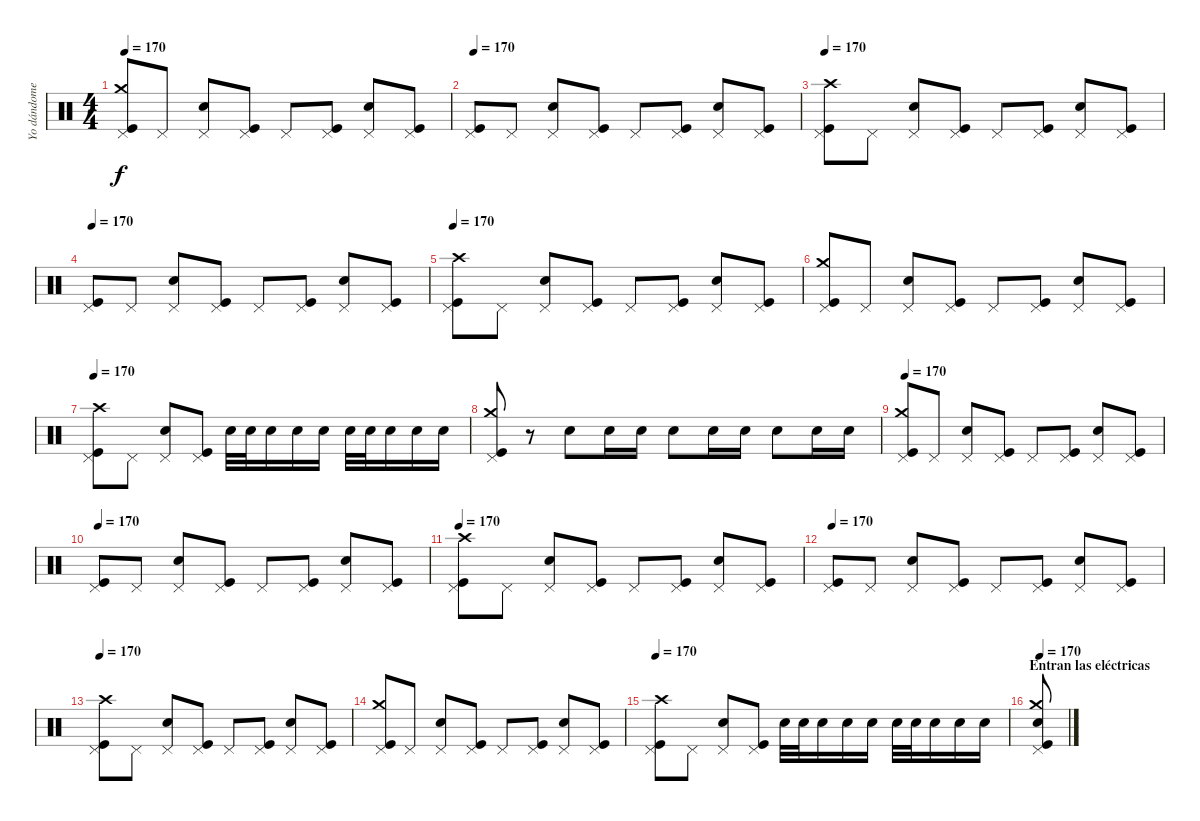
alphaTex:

\track ("Yo dándomelas de batero." "Yo dándome") {instrument percussion}
\staff {score}
\articulation defaults
\ts (4 4)
\tempo 170
\clef neutral
\ks c
("Pedal Hi-Hat (hit)" "Crash medium (hit)" "Kick (hit)").8{dy f} "Pedal Hi-Hat (hit)".8 ("Pedal Hi-Hat (hit)" "Electric Snare (hit)").8 ("Pedal Hi-Hat (hit)" "Kick (hit)").8 "Pedal Hi-Hat (hit)".8 ("Pedal Hi-Hat (hit)" "Kick (hit)").8 ("Pedal Hi-Hat (hit)" "Electric Snare (hit)").8 ("Pedal Hi-Hat (hit)" "Kick (hit)").8 |
\tempo 170
("Pedal Hi-Hat (hit)" "Kick (hit)").8 "Pedal Hi-Hat (hit)".8 ("Pedal Hi-Hat (hit)" "Electric Snare (hit)").8 ("Pedal Hi-Hat (hit)" "Kick (hit)").8 "Pedal Hi-Hat (hit)".8 ("Pedal Hi-Hat (hit)" "Kick (hit)").8 ("Pedal Hi-Hat (hit)" "Electric Snare (hit)").8 ("Pedal Hi-Hat (hit)" "Kick (hit)").8 |
\tempo 170
("Pedal Hi-Hat (hit)" "Crash high (hit)" "Kick (hit)").8 "Pedal Hi-Hat (hit)".8 ("Pedal Hi-Hat (hit)" "Electric Snare (hit)").8 ("Pedal Hi-Hat (hit)" "Kick (hit)").8 "Pedal Hi-Hat (hit)".8 ("Pedal Hi-Hat (hit)" "Kick (hit)").8 ("Pedal Hi-Hat (hit)" "Electric Snare (hit)").8 ("Pedal Hi-Hat (hit)" "Kick (hit)").8 |
\tempo 170
("Pedal Hi-Hat (hit)" "Kick (hit)").8 "Pedal Hi-Hat (hit)".8 ("Pedal Hi-Hat (hit)" "Electric Snare (hit)").8 ("Pedal Hi-Hat (hit)" "Kick (hit)").8 "Pedal Hi-Hat (hit)".8 ("Pedal Hi-Hat (hit)" "Kick (hit)").8 ("Pedal Hi-Hat (hit)" "Electric Snare (hit)").8 ("Pedal Hi-Hat (hit)" "Kick (hit)").8 |
\tempo 170
("Pedal Hi-Hat (hit)" "Crash high (hit)" "Kick (hit)").8 "Pedal Hi-Hat (hit)".8 ("Pedal Hi-Hat (hit)" "Electric Snare (hit)").8 ("Pedal Hi-Hat (hit)" "Kick (hit)").8 "Pedal Hi-Hat (hit)".8 ("Pedal Hi-Hat (hit)" "Kick (hit)").8 ("Pedal Hi-Hat (hit)" "Electric Snare (hit)").8 ("Pedal Hi-Hat (hit)" "Kick (hit)").8 |
("Pedal Hi-Hat (hit)" "Crash medium (hit)" "Kick (hit)").8 "Pedal Hi-Hat (hit)".8 ("Pedal Hi-Hat (hit)" "Electric Snare (hit)").8 ("Pedal Hi-Hat (hit)" "Kick (hit)").8 "Pedal Hi-Hat (hit)".8 ("Pedal Hi-Hat (hit)" "Kick (hit)").8 ("Pedal Hi-Hat (hit)" "Electric Snare (hit)").8 ("Pedal Hi-Hat (hit)" "Kick (hit)").8 |
\tempo 170
("Pedal Hi-Hat (hit)" "Crash high (hit)" "Kick (hit)").8 "Pedal Hi-Hat (hit)".8 ("Pedal Hi-Hat (hit)" "Electric Snare (hit)").8 ("Pedal Hi-Hat (hit)" "Kick (hit)").8 "Electric Snare (hit)".32 "Electric Snare (hit)".32 "Electric Snare (hit)".16 "Electric Snare (hit)".16 "Electric Snare (hit)".16 "Electric Snare (hit)".32 "Electric Snare (hit)".32 "Electric Snare (hit)".16 "Electric Snare (hit)".16 "Electric Snare (hit)".16 |
("Pedal Hi-Hat (hit)" "Crash medium (hit)" "Kick (hit)").8 r.8 "Electric Snare (hit)".8 "Electric Snare (hit)".16 "Electric Snare (hit)".16 "Electric Snare (hit)".8 "Electric Snare (hit)".16 "Electric Snare (hit)".16 "Electric Snare (hit)".8 "Electric Snare (hit)".16 "Electric Snare (hit)".16 |
\tempo 170
("Pedal Hi-Hat (hit)" "Crash medium (hit)" "Kick (hit)").8 "Pedal Hi-Hat (hit)".8 ("Pedal Hi-Hat (hit)" "Electric Snare (hit)").8 ("Pedal Hi-Hat (hit)" "Kick (hit)").8 "Pedal Hi-Hat (hit)".8 ("Pedal Hi-Hat (hit)" "Kick (hit)").8 ("Pedal Hi-Hat (hit)" "Electric Snare (hit)").8 ("Pedal Hi-Hat (hit)" "Kick (hit)").8 |
\tempo 170
("Pedal Hi-Hat (hit)" "Kick (hit)").8 "Pedal Hi-Hat (hit)".8 ("Pedal Hi-Hat (hit)" "Electric Snare (hit)").8 ("Pedal Hi-Hat (hit)" "Kick (hit)").8 "Pedal Hi-Hat (hit)".8 ("Pedal Hi-Hat (hit)" "Kick (hit)").8 ("Pedal Hi-Hat (hit)" "Electric Snare (hit)").8 ("Pedal Hi-Hat (hit)" "Kick (hit)").8 |
\tempo 170
("Pedal Hi-Hat (hit)" "Crash high (hit)" "Kick (hit)").8 "Pedal Hi-Hat (hit)".8 ("Pedal Hi-Hat (hit)" "Electric Snare (hit)").8 ("Pedal Hi-Hat (hit)" "Kick (hit)").8 "Pedal Hi-Hat (hit)".8 ("Pedal Hi-Hat (hit)" "Kick (hit)").8 ("Pedal Hi-Hat (hit)" "Electric Snare (hit)").8 ("Pedal Hi-Hat (hit)" "Kick (hit)").8 |
\tempo 170
("Pedal Hi-Hat (hit)" "Kick (hit)").8 "Pedal Hi-Hat (hit)".8 ("Pedal Hi-Hat (hit)" "Electric Snare (hit)").8 ("Pedal Hi-Hat (hit)" "Kick (hit)").8 "Pedal Hi-Hat (hit)".8 ("Pedal Hi-Hat (hit)" "Kick (hit)").8 ("Pedal Hi-Hat (hit)" "Electric Snare (hit)").8 ("Pedal Hi-Hat (hit)" "Kick (hit)").8 |
\tempo 170
("Pedal Hi-Hat (hit)" "Crash high (hit)" "Kick (hit)").8 "Pedal Hi-Hat (hit)".8 ("Pedal Hi-Hat (hit)" "Electric Snare (hit)").8 ("Pedal Hi-Hat (hit)" "Kick (hit)").8 "Pedal Hi-Hat (hit)".8 ("Pedal Hi-Hat (hit)" "Kick (hit)").8 ("Pedal Hi-Hat (hit)" "Electric Snare (hit)").8 ("Pedal Hi-Hat (hit)" "Kick (hit)").8 |
("Pedal Hi-Hat (hit)" "Crash medium (hit)" "Kick (hit)").8 "Pedal Hi-Hat (hit)".8 ("Pedal Hi-Hat (hit)" "Electric Snare (hit)").8 ("Pedal Hi-Hat (hit)" "Kick (hit)").8 "Pedal Hi-Hat (hit)".8 ("Pedal Hi-Hat (hit)" "Kick (hit)").8 ("Pedal Hi-Hat (hit)" "Electric Snare (hit)").8 ("Pedal Hi-Hat (hit)" "Kick (hit)").8 |
\tempo 170
("Pedal Hi-Hat (hit)" "Crash high (hit)" "Kick (hit)").8 "Pedal Hi-Hat (hit)".8 ("Pedal Hi-Hat (hit)" "Electric Snare (hit)").8 ("Pedal Hi-Hat (hit)" "Kick (hit)").8 "Electric Snare (hit)".32 "Electric Snare (hit)".32 "Electric Snare (hit)".16 "Electric Snare (hit)".16 "Electric Snare (hit)".16 "Electric Snare (hit)".32 "Electric Snare (hit)".32 "Electric Snare (hit)".16 "Electric Snare (hit)".16 "Electric Snare (hit)".16 |
\section ("" "Entran las eléctricas")
\tempo 170
("Pedal Hi-Hat (hit)" "Crash medium (hit)" "Electric Snare (hit)" "Kick (hit)").8
